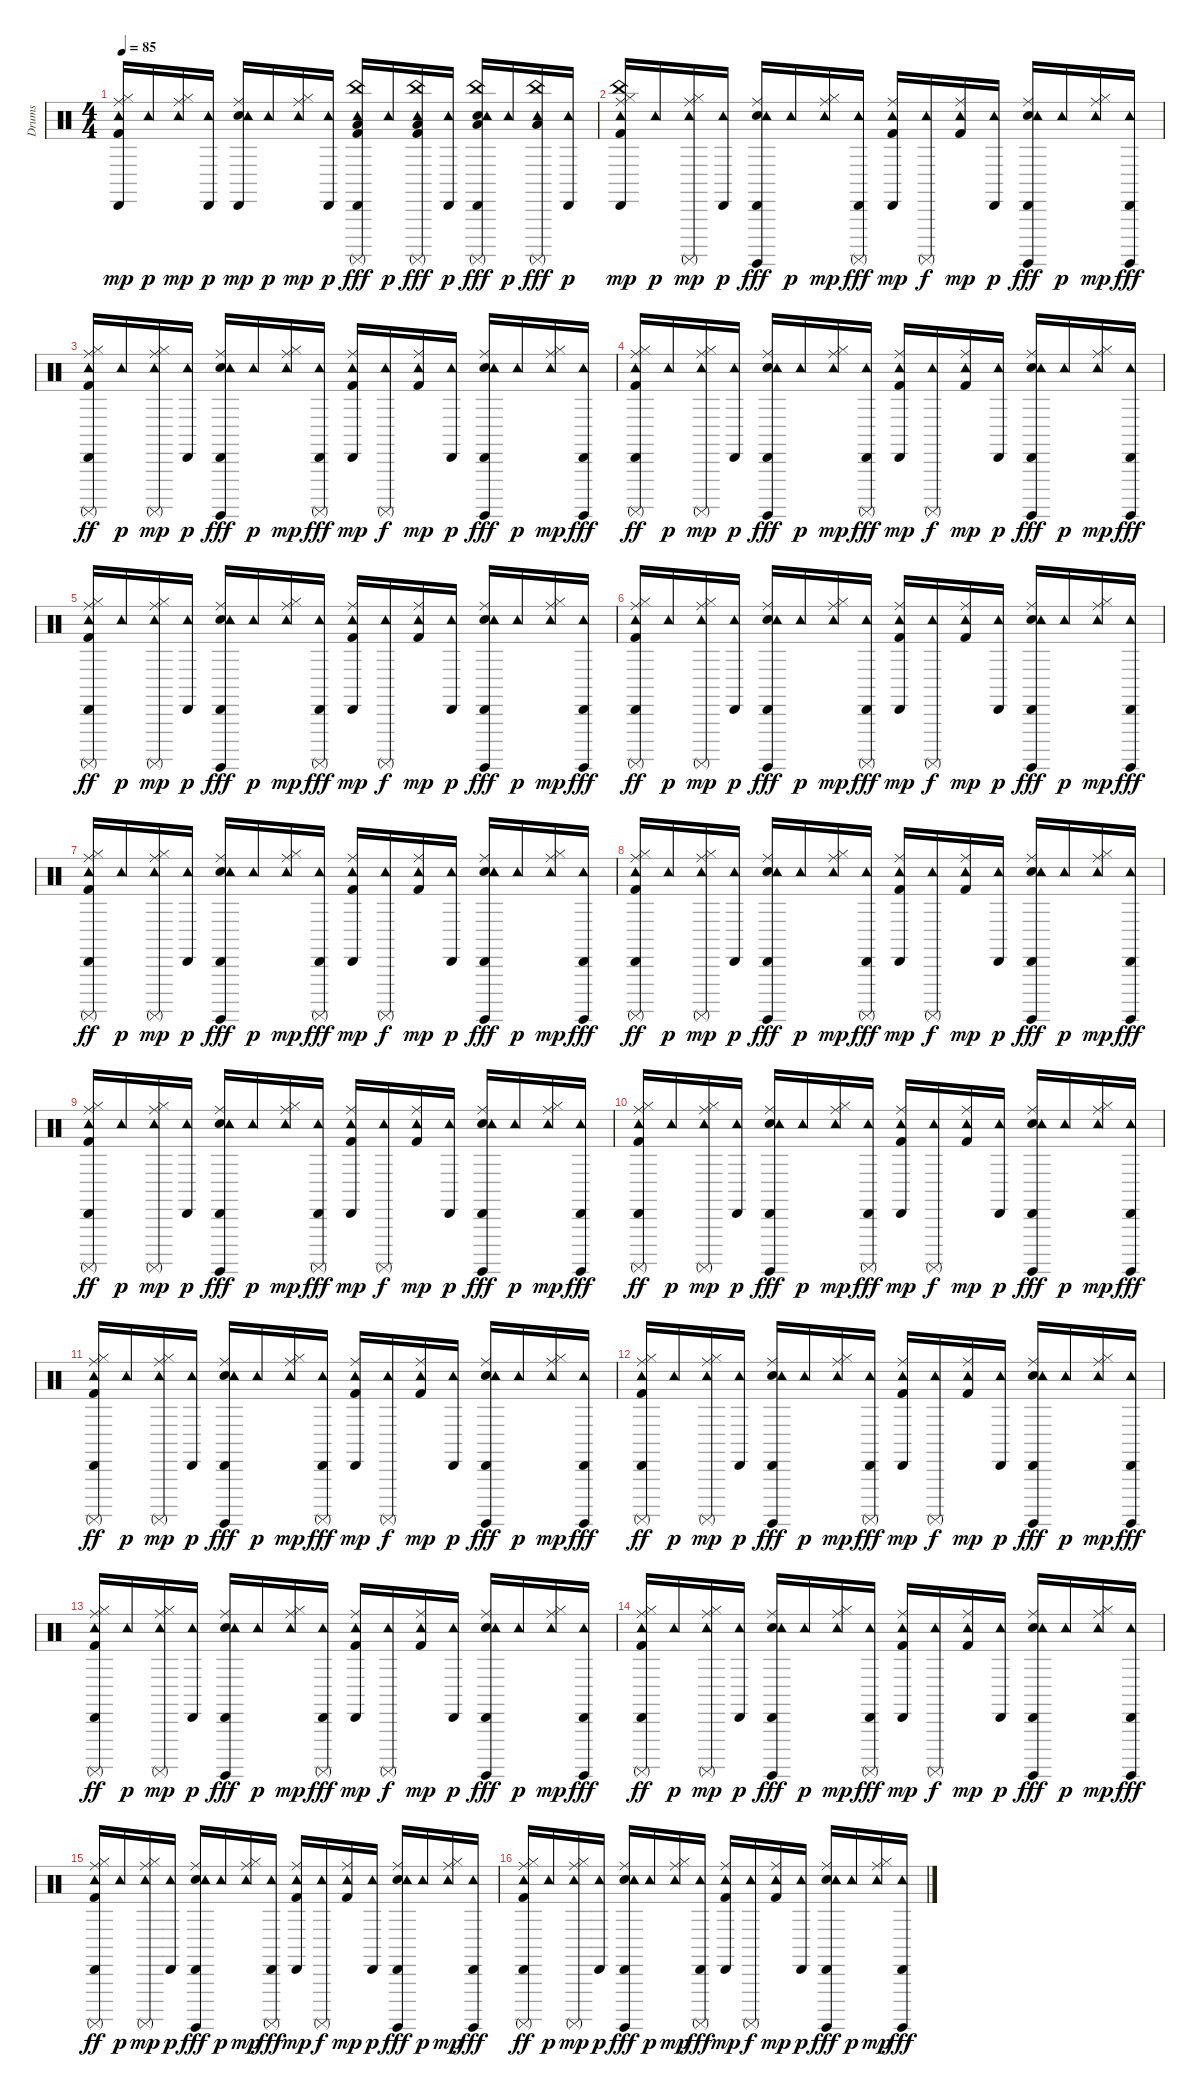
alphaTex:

\track ("Drums" "Drums") {instrument percussion}
\staff {score}
\articulation defaults
\ts (4 4)
\tempo 85
\clef neutral
\ks c
("Kick (hit) 2" "Hi-Hat (closed)" "Ride (middle)" "Tambourine (hit)" "Cabasa (hit)").16{dy mp} "Tambourine (hit)".16{dy p} ("Hi-Hat (closed)" "Ride (middle)" "Tambourine (hit)").16{dy mp} ("Cabasa (hit)" "Tambourine (hit)").16{dy p} ("Snare (hit) 2" "Ride (middle)" "Tambourine (hit)" "Cabasa (hit)").16{dy mp} "Tambourine (hit)".16{dy p} ("Hi-Hat (closed)" "Ride (middle)" "Tambourine (hit)").16{dy mp} ("Cabasa (hit)" "Tambourine (hit)").16{dy p} ("Kick (hit) 2" "Low Floor Tom (hit)" "China (hit)" "Tambourine (hit)" "Cabasa (hit)" "Surdo (mute)").16{dy fff} "Tambourine (hit)".16{dy p} ("Kick (hit) 2" "Low Floor Tom (hit)" "China (hit)" "Tambourine (hit)" "Surdo (mute)").16{dy fff} ("Cabasa (hit)" "Tambourine (hit)").16{dy p} ("Snare (hit) 2" "Low Floor Tom (hit)" "China (hit)" "Tambourine (hit)" "Cabasa (hit)" "Surdo (mute)").16{dy fff} "Tambourine (hit)".16{dy p} ("Low Floor Tom (hit)" "China (hit)" "Tambourine (hit)" "Surdo (mute)").16{dy fff} ("Cabasa (hit)" "Tambourine (hit)").16{dy p} |
("Kick (hit) 2" "Hi-Hat (closed)" "Ride (middle)" "China (hit)" "Tambourine (hit)" "Cabasa (hit)").16{dy mp} "Tambourine (hit)".16{dy p} ("Hi-Hat (closed)" "Ride (middle)" "Tambourine (hit)" "Surdo (mute)").16{dy mp} ("Cabasa (hit)" "Tambourine (hit)").16{dy p} ("Snare (hit) 2" "Ride (middle)" "Tambourine (hit)" "Cabasa (hit)" "Surdo (hit)").16{dy fff} "Tambourine (hit)".16{dy p} ("Hi-Hat (closed)" "Ride (middle)" "Tambourine (hit)").16{dy mp} ("Surdo (mute)" "Cabasa (hit)" "Tambourine (hit)").16{dy fff} ("Kick (hit) 2" "Ride (middle)" "Tambourine (hit)" "Cabasa (hit)").16{dy mp} ("Surdo (mute)" "Tambourine (hit)").16{dy f} ("Kick (hit) 2" "Ride (middle)" "Tambourine (hit)").16{dy mp} ("Cabasa (hit)" "Tambourine (hit)").16{dy p} ("Snare (hit) 2" "Ride (middle)" "Tambourine (hit)" "Cabasa (hit)" "Surdo (hit)").16{dy fff} "Tambourine (hit)".16{dy p} ("Hi-Hat (closed)" "Ride (middle)" "Tambourine (hit)").16{dy mp} ("Surdo (hit)" "Cabasa (hit)" "Tambourine (hit)").16{dy fff} |
("Kick (hit) 2" "Hi-Hat (closed)" "Ride (middle)" "Tambourine (hit)" "Cabasa (hit)" "Surdo (mute)").16{dy ff} "Tambourine (hit)".16{dy p} ("Hi-Hat (closed)" "Ride (middle)" "Tambourine (hit)" "Surdo (mute)").16{dy mp} ("Cabasa (hit)" "Tambourine (hit)").16{dy p} ("Snare (hit) 2" "Ride (middle)" "Tambourine (hit)" "Cabasa (hit)" "Surdo (hit)").16{dy fff} "Tambourine (hit)".16{dy p} ("Hi-Hat (closed)" "Ride (middle)" "Tambourine (hit)").16{dy mp} ("Surdo (mute)" "Cabasa (hit)" "Tambourine (hit)").16{dy fff} ("Kick (hit) 2" "Ride (middle)" "Tambourine (hit)" "Cabasa (hit)").16{dy mp} ("Surdo (mute)" "Tambourine (hit)").16{dy f} ("Kick (hit) 2" "Ride (middle)" "Tambourine (hit)").16{dy mp} ("Cabasa (hit)" "Tambourine (hit)").16{dy p} ("Snare (hit) 2" "Ride (middle)" "Tambourine (hit)" "Cabasa (hit)" "Surdo (hit)").16{dy fff} "Tambourine (hit)".16{dy p} ("Hi-Hat (closed)" "Ride (middle)" "Tambourine (hit)").16{dy mp} ("Surdo (hit)" "Cabasa (hit)" "Tambourine (hit)").16{dy fff} |
("Kick (hit) 2" "Hi-Hat (closed)" "Ride (middle)" "Tambourine (hit)" "Cabasa (hit)" "Surdo (mute)").16{dy ff} "Tambourine (hit)".16{dy p} ("Hi-Hat (closed)" "Ride (middle)" "Tambourine (hit)" "Surdo (mute)").16{dy mp} ("Cabasa (hit)" "Tambourine (hit)").16{dy p} ("Snare (hit) 2" "Ride (middle)" "Tambourine (hit)" "Cabasa (hit)" "Surdo (hit)").16{dy fff} "Tambourine (hit)".16{dy p} ("Hi-Hat (closed)" "Ride (middle)" "Tambourine (hit)").16{dy mp} ("Surdo (mute)" "Cabasa (hit)" "Tambourine (hit)").16{dy fff} ("Kick (hit) 2" "Ride (middle)" "Tambourine (hit)" "Cabasa (hit)").16{dy mp} ("Surdo (mute)" "Tambourine (hit)").16{dy f} ("Kick (hit) 2" "Ride (middle)" "Tambourine (hit)").16{dy mp} ("Cabasa (hit)" "Tambourine (hit)").16{dy p} ("Snare (hit) 2" "Ride (middle)" "Tambourine (hit)" "Cabasa (hit)" "Surdo (hit)").16{dy fff} "Tambourine (hit)".16{dy p} ("Hi-Hat (closed)" "Ride (middle)" "Tambourine (hit)").16{dy mp} ("Surdo (hit)" "Cabasa (hit)" "Tambourine (hit)").16{dy fff} |
("Kick (hit) 2" "Hi-Hat (closed)" "Ride (middle)" "Tambourine (hit)" "Cabasa (hit)" "Surdo (mute)").16{dy ff} "Tambourine (hit)".16{dy p} ("Hi-Hat (closed)" "Ride (middle)" "Tambourine (hit)" "Surdo (mute)").16{dy mp} ("Cabasa (hit)" "Tambourine (hit)").16{dy p} ("Snare (hit) 2" "Ride (middle)" "Tambourine (hit)" "Cabasa (hit)" "Surdo (hit)").16{dy fff} "Tambourine (hit)".16{dy p} ("Hi-Hat (closed)" "Ride (middle)" "Tambourine (hit)").16{dy mp} ("Surdo (mute)" "Cabasa (hit)" "Tambourine (hit)").16{dy fff} ("Kick (hit) 2" "Ride (middle)" "Tambourine (hit)" "Cabasa (hit)").16{dy mp} ("Surdo (mute)" "Tambourine (hit)").16{dy f} ("Kick (hit) 2" "Ride (middle)" "Tambourine (hit)").16{dy mp} ("Cabasa (hit)" "Tambourine (hit)").16{dy p} ("Snare (hit) 2" "Ride (middle)" "Tambourine (hit)" "Cabasa (hit)" "Surdo (hit)").16{dy fff} "Tambourine (hit)".16{dy p} ("Hi-Hat (closed)" "Ride (middle)" "Tambourine (hit)").16{dy mp} ("Surdo (hit)" "Cabasa (hit)" "Tambourine (hit)").16{dy fff} |
("Kick (hit) 2" "Hi-Hat (closed)" "Ride (middle)" "Tambourine (hit)" "Cabasa (hit)" "Surdo (mute)").16{dy ff} "Tambourine (hit)".16{dy p} ("Hi-Hat (closed)" "Ride (middle)" "Tambourine (hit)" "Surdo (mute)").16{dy mp} ("Cabasa (hit)" "Tambourine (hit)").16{dy p} ("Snare (hit) 2" "Ride (middle)" "Tambourine (hit)" "Cabasa (hit)" "Surdo (hit)").16{dy fff} "Tambourine (hit)".16{dy p} ("Hi-Hat (closed)" "Ride (middle)" "Tambourine (hit)").16{dy mp} ("Surdo (mute)" "Cabasa (hit)" "Tambourine (hit)").16{dy fff} ("Kick (hit) 2" "Ride (middle)" "Tambourine (hit)" "Cabasa (hit)").16{dy mp} ("Surdo (mute)" "Tambourine (hit)").16{dy f} ("Kick (hit) 2" "Ride (middle)" "Tambourine (hit)").16{dy mp} ("Cabasa (hit)" "Tambourine (hit)").16{dy p} ("Snare (hit) 2" "Ride (middle)" "Tambourine (hit)" "Cabasa (hit)" "Surdo (hit)").16{dy fff} "Tambourine (hit)".16{dy p} ("Hi-Hat (closed)" "Ride (middle)" "Tambourine (hit)").16{dy mp} ("Surdo (hit)" "Cabasa (hit)" "Tambourine (hit)").16{dy fff} |
("Kick (hit) 2" "Hi-Hat (closed)" "Ride (middle)" "Tambourine (hit)" "Cabasa (hit)" "Surdo (mute)").16{dy ff} "Tambourine (hit)".16{dy p} ("Hi-Hat (closed)" "Ride (middle)" "Tambourine (hit)" "Surdo (mute)").16{dy mp} ("Cabasa (hit)" "Tambourine (hit)").16{dy p} ("Snare (hit) 2" "Ride (middle)" "Tambourine (hit)" "Cabasa (hit)" "Surdo (hit)").16{dy fff} "Tambourine (hit)".16{dy p} ("Hi-Hat (closed)" "Ride (middle)" "Tambourine (hit)").16{dy mp} ("Surdo (mute)" "Cabasa (hit)" "Tambourine (hit)").16{dy fff} ("Kick (hit) 2" "Ride (middle)" "Tambourine (hit)" "Cabasa (hit)").16{dy mp} ("Surdo (mute)" "Tambourine (hit)").16{dy f} ("Kick (hit) 2" "Ride (middle)" "Tambourine (hit)").16{dy mp} ("Cabasa (hit)" "Tambourine (hit)").16{dy p} ("Snare (hit) 2" "Ride (middle)" "Tambourine (hit)" "Cabasa (hit)" "Surdo (hit)").16{dy fff} "Tambourine (hit)".16{dy p} ("Hi-Hat (closed)" "Ride (middle)" "Tambourine (hit)").16{dy mp} ("Surdo (hit)" "Cabasa (hit)" "Tambourine (hit)").16{dy fff} |
("Kick (hit) 2" "Hi-Hat (closed)" "Ride (middle)" "Tambourine (hit)" "Cabasa (hit)" "Surdo (mute)").16{dy ff} "Tambourine (hit)".16{dy p} ("Hi-Hat (closed)" "Ride (middle)" "Tambourine (hit)" "Surdo (mute)").16{dy mp} ("Cabasa (hit)" "Tambourine (hit)").16{dy p} ("Snare (hit) 2" "Ride (middle)" "Tambourine (hit)" "Cabasa (hit)" "Surdo (hit)").16{dy fff} "Tambourine (hit)".16{dy p} ("Hi-Hat (closed)" "Ride (middle)" "Tambourine (hit)").16{dy mp} ("Surdo (mute)" "Cabasa (hit)" "Tambourine (hit)").16{dy fff} ("Kick (hit) 2" "Ride (middle)" "Tambourine (hit)" "Cabasa (hit)").16{dy mp} ("Surdo (mute)" "Tambourine (hit)").16{dy f} ("Kick (hit) 2" "Ride (middle)" "Tambourine (hit)").16{dy mp} ("Cabasa (hit)" "Tambourine (hit)").16{dy p} ("Snare (hit) 2" "Ride (middle)" "Tambourine (hit)" "Cabasa (hit)" "Surdo (hit)").16{dy fff} "Tambourine (hit)".16{dy p} ("Hi-Hat (closed)" "Ride (middle)" "Tambourine (hit)").16{dy mp} ("Surdo (hit)" "Cabasa (hit)" "Tambourine (hit)").16{dy fff} |
("Kick (hit) 2" "Hi-Hat (closed)" "Ride (middle)" "Tambourine (hit)" "Cabasa (hit)" "Surdo (mute)").16{dy ff} "Tambourine (hit)".16{dy p} ("Hi-Hat (closed)" "Ride (middle)" "Tambourine (hit)" "Surdo (mute)").16{dy mp} ("Cabasa (hit)" "Tambourine (hit)").16{dy p} ("Snare (hit) 2" "Ride (middle)" "Tambourine (hit)" "Cabasa (hit)" "Surdo (hit)").16{dy fff} "Tambourine (hit)".16{dy p} ("Hi-Hat (closed)" "Ride (middle)" "Tambourine (hit)").16{dy mp} ("Surdo (mute)" "Cabasa (hit)" "Tambourine (hit)").16{dy fff} ("Kick (hit) 2" "Ride (middle)" "Tambourine (hit)" "Cabasa (hit)").16{dy mp} ("Surdo (mute)" "Tambourine (hit)").16{dy f} ("Kick (hit) 2" "Ride (middle)" "Tambourine (hit)").16{dy mp} ("Cabasa (hit)" "Tambourine (hit)").16{dy p} ("Snare (hit) 2" "Ride (middle)" "Tambourine (hit)" "Cabasa (hit)" "Surdo (hit)").16{dy fff} "Tambourine (hit)".16{dy p} ("Hi-Hat (closed)" "Ride (middle)" "Tambourine (hit)").16{dy mp} ("Surdo (hit)" "Cabasa (hit)" "Tambourine (hit)").16{dy fff} |
("Kick (hit) 2" "Hi-Hat (closed)" "Ride (middle)" "Tambourine (hit)" "Cabasa (hit)" "Surdo (mute)").16{dy ff} "Tambourine (hit)".16{dy p} ("Hi-Hat (closed)" "Ride (middle)" "Tambourine (hit)" "Surdo (mute)").16{dy mp} ("Cabasa (hit)" "Tambourine (hit)").16{dy p} ("Snare (hit) 2" "Ride (middle)" "Tambourine (hit)" "Cabasa (hit)" "Surdo (hit)").16{dy fff} "Tambourine (hit)".16{dy p} ("Hi-Hat (closed)" "Ride (middle)" "Tambourine (hit)").16{dy mp} ("Surdo (mute)" "Cabasa (hit)" "Tambourine (hit)").16{dy fff} ("Kick (hit) 2" "Ride (middle)" "Tambourine (hit)" "Cabasa (hit)").16{dy mp} ("Surdo (mute)" "Tambourine (hit)").16{dy f} ("Kick (hit) 2" "Ride (middle)" "Tambourine (hit)").16{dy mp} ("Cabasa (hit)" "Tambourine (hit)").16{dy p} ("Snare (hit) 2" "Ride (middle)" "Tambourine (hit)" "Cabasa (hit)" "Surdo (hit)").16{dy fff} "Tambourine (hit)".16{dy p} ("Hi-Hat (closed)" "Ride (middle)" "Tambourine (hit)").16{dy mp} ("Surdo (hit)" "Cabasa (hit)" "Tambourine (hit)").16{dy fff} |
("Kick (hit) 2" "Hi-Hat (closed)" "Ride (middle)" "Tambourine (hit)" "Cabasa (hit)" "Surdo (mute)").16{dy ff} "Tambourine (hit)".16{dy p} ("Hi-Hat (closed)" "Ride (middle)" "Tambourine (hit)" "Surdo (mute)").16{dy mp} ("Cabasa (hit)" "Tambourine (hit)").16{dy p} ("Snare (hit) 2" "Ride (middle)" "Tambourine (hit)" "Cabasa (hit)" "Surdo (hit)").16{dy fff} "Tambourine (hit)".16{dy p} ("Hi-Hat (closed)" "Ride (middle)" "Tambourine (hit)").16{dy mp} ("Surdo (mute)" "Cabasa (hit)" "Tambourine (hit)").16{dy fff} ("Kick (hit) 2" "Ride (middle)" "Tambourine (hit)" "Cabasa (hit)").16{dy mp} ("Surdo (mute)" "Tambourine (hit)").16{dy f} ("Kick (hit) 2" "Ride (middle)" "Tambourine (hit)").16{dy mp} ("Cabasa (hit)" "Tambourine (hit)").16{dy p} ("Snare (hit) 2" "Ride (middle)" "Tambourine (hit)" "Cabasa (hit)" "Surdo (hit)").16{dy fff} "Tambourine (hit)".16{dy p} ("Hi-Hat (closed)" "Ride (middle)" "Tambourine (hit)").16{dy mp} ("Surdo (hit)" "Cabasa (hit)" "Tambourine (hit)").16{dy fff} |
("Kick (hit) 2" "Hi-Hat (closed)" "Ride (middle)" "Tambourine (hit)" "Cabasa (hit)" "Surdo (mute)").16{dy ff} "Tambourine (hit)".16{dy p} ("Hi-Hat (closed)" "Ride (middle)" "Tambourine (hit)" "Surdo (mute)").16{dy mp} ("Cabasa (hit)" "Tambourine (hit)").16{dy p} ("Snare (hit) 2" "Ride (middle)" "Tambourine (hit)" "Cabasa (hit)" "Surdo (hit)").16{dy fff} "Tambourine (hit)".16{dy p} ("Hi-Hat (closed)" "Ride (middle)" "Tambourine (hit)").16{dy mp} ("Surdo (mute)" "Cabasa (hit)" "Tambourine (hit)").16{dy fff} ("Kick (hit) 2" "Ride (middle)" "Tambourine (hit)" "Cabasa (hit)").16{dy mp} ("Surdo (mute)" "Tambourine (hit)").16{dy f} ("Kick (hit) 2" "Ride (middle)" "Tambourine (hit)").16{dy mp} ("Cabasa (hit)" "Tambourine (hit)").16{dy p} ("Snare (hit) 2" "Ride (middle)" "Tambourine (hit)" "Cabasa (hit)" "Surdo (hit)").16{dy fff} "Tambourine (hit)".16{dy p} ("Hi-Hat (closed)" "Ride (middle)" "Tambourine (hit)").16{dy mp} ("Surdo (hit)" "Cabasa (hit)" "Tambourine (hit)").16{dy fff} |
("Kick (hit) 2" "Hi-Hat (closed)" "Ride (middle)" "Tambourine (hit)" "Cabasa (hit)" "Surdo (mute)").16{dy ff} "Tambourine (hit)".16{dy p} ("Hi-Hat (closed)" "Ride (middle)" "Tambourine (hit)" "Surdo (mute)").16{dy mp} ("Cabasa (hit)" "Tambourine (hit)").16{dy p} ("Snare (hit) 2" "Ride (middle)" "Tambourine (hit)" "Cabasa (hit)" "Surdo (hit)").16{dy fff} "Tambourine (hit)".16{dy p} ("Hi-Hat (closed)" "Ride (middle)" "Tambourine (hit)").16{dy mp} ("Surdo (mute)" "Cabasa (hit)" "Tambourine (hit)").16{dy fff} ("Kick (hit) 2" "Ride (middle)" "Tambourine (hit)" "Cabasa (hit)").16{dy mp} ("Surdo (mute)" "Tambourine (hit)").16{dy f} ("Kick (hit) 2" "Ride (middle)" "Tambourine (hit)").16{dy mp} ("Cabasa (hit)" "Tambourine (hit)").16{dy p} ("Snare (hit) 2" "Ride (middle)" "Tambourine (hit)" "Cabasa (hit)" "Surdo (hit)").16{dy fff} "Tambourine (hit)".16{dy p} ("Hi-Hat (closed)" "Ride (middle)" "Tambourine (hit)").16{dy mp} ("Surdo (hit)" "Cabasa (hit)" "Tambourine (hit)").16{dy fff} |
("Kick (hit) 2" "Hi-Hat (closed)" "Ride (middle)" "Tambourine (hit)" "Cabasa (hit)" "Surdo (mute)").16{dy ff} "Tambourine (hit)".16{dy p} ("Hi-Hat (closed)" "Ride (middle)" "Tambourine (hit)" "Surdo (mute)").16{dy mp} ("Cabasa (hit)" "Tambourine (hit)").16{dy p} ("Snare (hit) 2" "Ride (middle)" "Tambourine (hit)" "Cabasa (hit)" "Surdo (hit)").16{dy fff} "Tambourine (hit)".16{dy p} ("Hi-Hat (closed)" "Ride (middle)" "Tambourine (hit)").16{dy mp} ("Surdo (mute)" "Cabasa (hit)" "Tambourine (hit)").16{dy fff} ("Kick (hit) 2" "Ride (middle)" "Tambourine (hit)" "Cabasa (hit)").16{dy mp} ("Surdo (mute)" "Tambourine (hit)").16{dy f} ("Kick (hit) 2" "Ride (middle)" "Tambourine (hit)").16{dy mp} ("Cabasa (hit)" "Tambourine (hit)").16{dy p} ("Snare (hit) 2" "Ride (middle)" "Tambourine (hit)" "Cabasa (hit)" "Surdo (hit)").16{dy fff} "Tambourine (hit)".16{dy p} ("Hi-Hat (closed)" "Ride (middle)" "Tambourine (hit)").16{dy mp} ("Surdo (hit)" "Cabasa (hit)" "Tambourine (hit)").16{dy fff} |
("Kick (hit) 2" "Hi-Hat (closed)" "Ride (middle)" "Tambourine (hit)" "Cabasa (hit)" "Surdo (mute)").16{dy ff} "Tambourine (hit)".16{dy p} ("Hi-Hat (closed)" "Ride (middle)" "Tambourine (hit)" "Surdo (mute)").16{dy mp} ("Cabasa (hit)" "Tambourine (hit)").16{dy p} ("Snare (hit) 2" "Ride (middle)" "Tambourine (hit)" "Cabasa (hit)" "Surdo (hit)").16{dy fff} "Tambourine (hit)".16{dy p} ("Hi-Hat (closed)" "Ride (middle)" "Tambourine (hit)").16{dy mp} ("Surdo (mute)" "Cabasa (hit)" "Tambourine (hit)").16{dy fff} ("Kick (hit) 2" "Ride (middle)" "Tambourine (hit)" "Cabasa (hit)").16{dy mp} ("Surdo (mute)" "Tambourine (hit)").16{dy f} ("Kick (hit) 2" "Ride (middle)" "Tambourine (hit)").16{dy mp} ("Cabasa (hit)" "Tambourine (hit)").16{dy p} ("Snare (hit) 2" "Ride (middle)" "Tambourine (hit)" "Cabasa (hit)" "Surdo (hit)").16{dy fff} "Tambourine (hit)".16{dy p} ("Hi-Hat (closed)" "Ride (middle)" "Tambourine (hit)").16{dy mp} ("Surdo (hit)" "Cabasa (hit)" "Tambourine (hit)").16{dy fff} |
("Kick (hit) 2" "Hi-Hat (closed)" "Ride (middle)" "Tambourine (hit)" "Cabasa (hit)" "Surdo (mute)").16{dy ff} "Tambourine (hit)".16{dy p} ("Hi-Hat (closed)" "Ride (middle)" "Tambourine (hit)" "Surdo (mute)").16{dy mp} ("Cabasa (hit)" "Tambourine (hit)").16{dy p} ("Snare (hit) 2" "Ride (middle)" "Tambourine (hit)" "Cabasa (hit)" "Surdo (hit)").16{dy fff} "Tambourine (hit)".16{dy p} ("Hi-Hat (closed)" "Ride (middle)" "Tambourine (hit)").16{dy mp} ("Surdo (mute)" "Cabasa (hit)" "Tambourine (hit)").16{dy fff} ("Kick (hit) 2" "Ride (middle)" "Tambourine (hit)" "Cabasa (hit)").16{dy mp} ("Surdo (mute)" "Tambourine (hit)").16{dy f} ("Kick (hit) 2" "Ride (middle)" "Tambourine (hit)").16{dy mp} ("Cabasa (hit)" "Tambourine (hit)").16{dy p} ("Snare (hit) 2" "Ride (middle)" "Tambourine (hit)" "Cabasa (hit)" "Surdo (hit)").16{dy fff} "Tambourine (hit)".16{dy p} ("Hi-Hat (closed)" "Ride (middle)" "Tambourine (hit)").16{dy mp} ("Surdo (hit)" "Cabasa (hit)" "Tambourine (hit)").16{dy fff}
